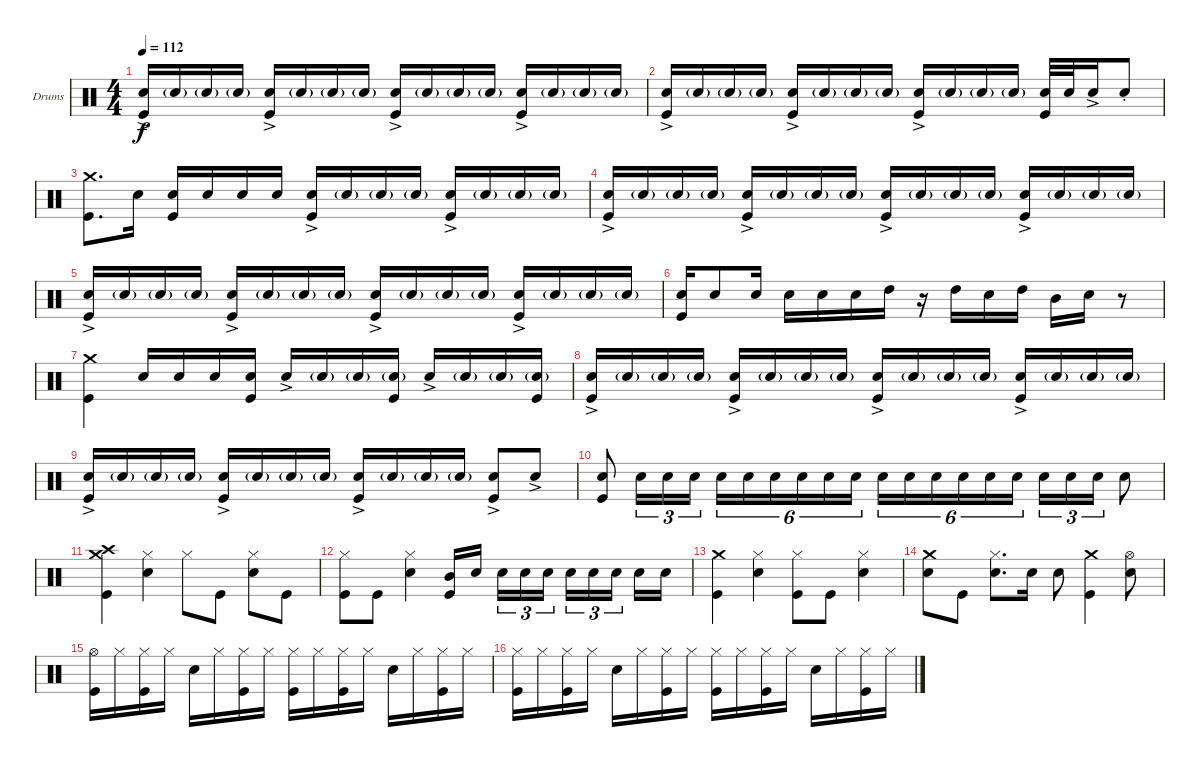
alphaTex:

\bracketExtendMode groupsimilarinstruments
\firstSystemTrackNameOrientation horizontal
\otherSystemsTrackNameOrientation horizontal
\track ("Drumkit" "Drums") {instrument percussion}
\staff {score}
\articulation defaults
\ts (4 4)
\tempo 112
\clef neutral
\ks c
("Snare (hit) 2"{ac} "Kick (hit)").16{dy f} "Snare (hit) 2"{g}.16 "Snare (hit) 2"{g}.16 "Snare (hit) 2"{g}.16 ("Snare (hit) 2"{ac} "Kick (hit)").16 "Snare (hit) 2"{g}.16 "Snare (hit) 2"{g}.16 "Snare (hit) 2"{g}.16 ("Snare (hit) 2"{ac} "Kick (hit)").16 "Snare (hit) 2"{g}.16 "Snare (hit) 2"{g}.16 "Snare (hit) 2"{g}.16 ("Snare (hit) 2"{ac} "Kick (hit)").16 "Snare (hit) 2"{g}.16 "Snare (hit) 2"{g}.16 "Snare (hit) 2"{g}.16 |
("Snare (hit) 2"{ac} "Kick (hit)").16 "Snare (hit) 2"{g}.16 "Snare (hit) 2"{g}.16 "Snare (hit) 2"{g}.16 ("Snare (hit) 2"{ac} "Kick (hit)").16 "Snare (hit) 2"{g}.16 "Snare (hit) 2"{g}.16 "Snare (hit) 2"{g}.16 ("Snare (hit) 2"{ac} "Kick (hit)").16 "Snare (hit) 2"{g}.16 "Snare (hit) 2"{g}.16 "Snare (hit) 2"{g}.16 ("Snare (hit) 2" "Kick (hit)").32 "Snare (hit) 2".32 "Snare (hit) 2"{ac}.16 "Snare (hit) 2"{st}.8 |
("Crash medium (hit)" "Kick (hit)").8{d} "Snare (hit) 2".16 ("Snare (hit) 2" "Kick (hit)").16 "Snare (hit) 2".16 "Snare (hit) 2".16 "Snare (hit) 2".16 ("Snare (hit) 2"{ac} "Kick (hit)").16 "Snare (hit) 2"{g}.16 "Snare (hit) 2"{g}.16 "Snare (hit) 2"{g}.16 ("Snare (hit) 2"{ac} "Kick (hit)").16 "Snare (hit) 2"{g}.16 "Snare (hit) 2"{g}.16 "Snare (hit) 2"{g}.16 |
("Snare (hit) 2"{ac} "Kick (hit)").16 "Snare (hit) 2"{g}.16 "Snare (hit) 2"{g}.16 "Snare (hit) 2"{g}.16 ("Snare (hit) 2"{ac} "Kick (hit)").16 "Snare (hit) 2"{g}.16 "Snare (hit) 2"{g}.16 "Snare (hit) 2"{g}.16 ("Snare (hit) 2"{ac} "Kick (hit)").16 "Snare (hit) 2"{g}.16 "Snare (hit) 2"{g}.16 "Snare (hit) 2"{g}.16 ("Snare (hit) 2"{ac} "Kick (hit)").16 "Snare (hit) 2"{g}.16 "Snare (hit) 2"{g}.16 "Snare (hit) 2"{g}.16 |
("Snare (hit) 2"{ac} "Kick (hit)").16 "Snare (hit) 2"{g}.16 "Snare (hit) 2"{g}.16 "Snare (hit) 2"{g}.16 ("Snare (hit) 2"{ac} "Kick (hit)").16 "Snare (hit) 2"{g}.16 "Snare (hit) 2"{g}.16 "Snare (hit) 2"{g}.16 ("Snare (hit) 2"{ac} "Kick (hit)").16 "Snare (hit) 2"{g}.16 "Snare (hit) 2"{g}.16 "Snare (hit) 2"{g}.16 ("Snare (hit) 2"{ac} "Kick (hit)").16 "Snare (hit) 2"{g}.16 "Snare (hit) 2"{g}.16 "Snare (hit) 2"{g}.16 |
("Snare (hit) 2" "Kick (hit)").16 "Snare (hit) 2".8 "Snare (hit) 2".16 "Snare (hit) 2".16 "Snare (hit) 2".16 "Snare (hit) 2".16 "High Tom (hit)".16 r.16 "High Tom (hit)".16 "Snare (hit) 2".16 "High Tom (hit)".16 "Mid Tom (hit)".16 "Snare (hit) 2".16 r.8 |
("Crash medium (hit)" "Kick (hit)").4 "Snare (hit) 2".16 "Snare (hit) 2".16 "Snare (hit) 2".16 ("Snare (hit) 2" "Kick (hit)").16 "Snare (hit) 2"{ac}.16 "Snare (hit) 2"{g}.16 "Snare (hit) 2"{g}.16 ("Snare (hit) 2"{g} "Kick (hit)").16 "Snare (hit) 2"{ac}.16 "Snare (hit) 2"{g}.16 "Snare (hit) 2"{g}.16 ("Snare (hit) 2"{g} "Kick (hit)").16 |
("Snare (hit) 2"{ac} "Kick (hit)").16 "Snare (hit) 2"{g}.16 "Snare (hit) 2"{g}.16 "Snare (hit) 2"{g}.16 ("Snare (hit) 2"{ac} "Kick (hit)").16 "Snare (hit) 2"{g}.16 "Snare (hit) 2"{g}.16 "Snare (hit) 2"{g}.16 ("Snare (hit) 2"{ac} "Kick (hit)").16 "Snare (hit) 2"{g}.16 "Snare (hit) 2"{g}.16 "Snare (hit) 2"{g}.16 ("Snare (hit) 2"{ac} "Kick (hit)").16 "Snare (hit) 2"{g}.16 "Snare (hit) 2"{g}.16 "Snare (hit) 2"{g}.16 |
("Snare (hit) 2"{ac} "Kick (hit)").16 "Snare (hit) 2"{g}.16 "Snare (hit) 2"{g}.16 "Snare (hit) 2"{g}.16 ("Snare (hit) 2"{ac} "Kick (hit)").16 "Snare (hit) 2"{g}.16 "Snare (hit) 2"{g}.16 "Snare (hit) 2"{g}.16 ("Snare (hit) 2"{ac} "Kick (hit)").16 "Snare (hit) 2"{g}.16 "Snare (hit) 2"{g}.16 "Snare (hit) 2"{g}.16 ("Snare (hit) 2"{ac} "Kick (hit)").8 "Snare (hit) 2"{ac}.8 |
("Snare (hit) 2" "Kick (hit)").8 "Snare (hit) 2".16{tu (3 2)} "Snare (hit) 2".16{tu (3 2)} "Snare (hit) 2".16{tu (3 2)} "Snare (hit) 2".16{tu (6 4)} "Snare (hit) 2".16{tu (6 4)} "Snare (hit) 2".16{tu (6 4)} "Snare (hit) 2".16{tu (6 4)} "Snare (hit) 2".16{tu (6 4)} "Snare (hit) 2".16{tu (6 4)} "Snare (hit) 2".16{tu (6 4)} "Snare (hit) 2".16{tu (6 4)} "Snare (hit) 2".16{tu (6 4)} "Snare (hit) 2".16{tu (6 4)} "Snare (hit) 2".16{tu (6 4)} "Snare (hit) 2".16{tu (6 4)} "Snare (hit) 2".16{tu (3 2)} "Snare (hit) 2".16{tu (3 2)} "Snare (hit) 2".16{tu (3 2)} "Snare (hit) 2".8 |
("Crash medium (hit)" "Crash high (hit)" "Kick (hit)").4 ("Hi-Hat (closed)" "Snare (hit) 2").4 "Hi-Hat (closed)".8 "Kick (hit)".8 ("Hi-Hat (closed)" "Snare (hit) 2").8 "Kick (hit)".8 |
("Hi-Hat (closed)" "Kick (hit)").8 "Kick (hit)".8 ("Hi-Hat (closed)" "Snare (hit) 2").4 ("Mid Tom (hit)" "Kick (hit)").16 "Snare (hit) 2".16 "Snare (hit) 2".16{tu (3 2)} "Snare (hit) 2".16{tu (3 2)} "Snare (hit) 2".16{tu (3 2)} "Snare (hit) 2".16{tu (3 2)} "Snare (hit) 2".16{tu (3 2)} "Snare (hit) 2".16{tu (3 2)} "Snare (hit) 2".16 "Snare (hit) 2".16 |
("Crash medium (hit)" "Kick (hit)").4 ("Hi-Hat (closed)" "Snare (hit) 2").4 ("Hi-Hat (closed)" "Kick (hit)").8 "Kick (hit)".8 ("Hi-Hat (closed)" "Snare (hit) 2").4 |
("Crash medium (hit)" "Snare (hit) 2").8 "Kick (hit)".8 ("Hi-Hat (closed)" "Snare (hit) 2").8{d} "Snare (hit) 2".16 "Snare (hit) 2".8 ("Crash medium (hit)" "Kick (hit)").4 ("Hi-Hat (open)" "Snare (hit) 2").8 |
("Hi-Hat (open)" "Kick (hit)").16 "Hi-Hat (closed)".16 ("Hi-Hat (closed)" "Kick (hit)").16 "Hi-Hat (closed)".16 "Snare (hit) 2".16 "Hi-Hat (closed)".16 ("Hi-Hat (closed)" "Kick (hit)").16 "Hi-Hat (closed)".16 ("Hi-Hat (closed)" "Kick (hit)").16 "Hi-Hat (closed)".16 ("Hi-Hat (closed)" "Kick (hit)").16 "Hi-Hat (closed)".16 "Snare (hit) 2".16 "Hi-Hat (closed)".16 ("Hi-Hat (closed)" "Kick (hit)").16 "Hi-Hat (closed)".16 |
("Hi-Hat (closed)" "Kick (hit)").16 "Hi-Hat (closed)".16 ("Hi-Hat (closed)" "Kick (hit)").16 "Hi-Hat (closed)".16 "Snare (hit) 2".16 "Hi-Hat (closed)".16 ("Hi-Hat (closed)" "Kick (hit)").16 "Hi-Hat (closed)".16 ("Hi-Hat (closed)" "Kick (hit)").16 "Hi-Hat (closed)".16 ("Hi-Hat (closed)" "Kick (hit)").16 "Hi-Hat (closed)".16 "Snare (hit) 2".16 "Hi-Hat (closed)".16 ("Hi-Hat (closed)" "Kick (hit)").16 "Hi-Hat (closed)".16
